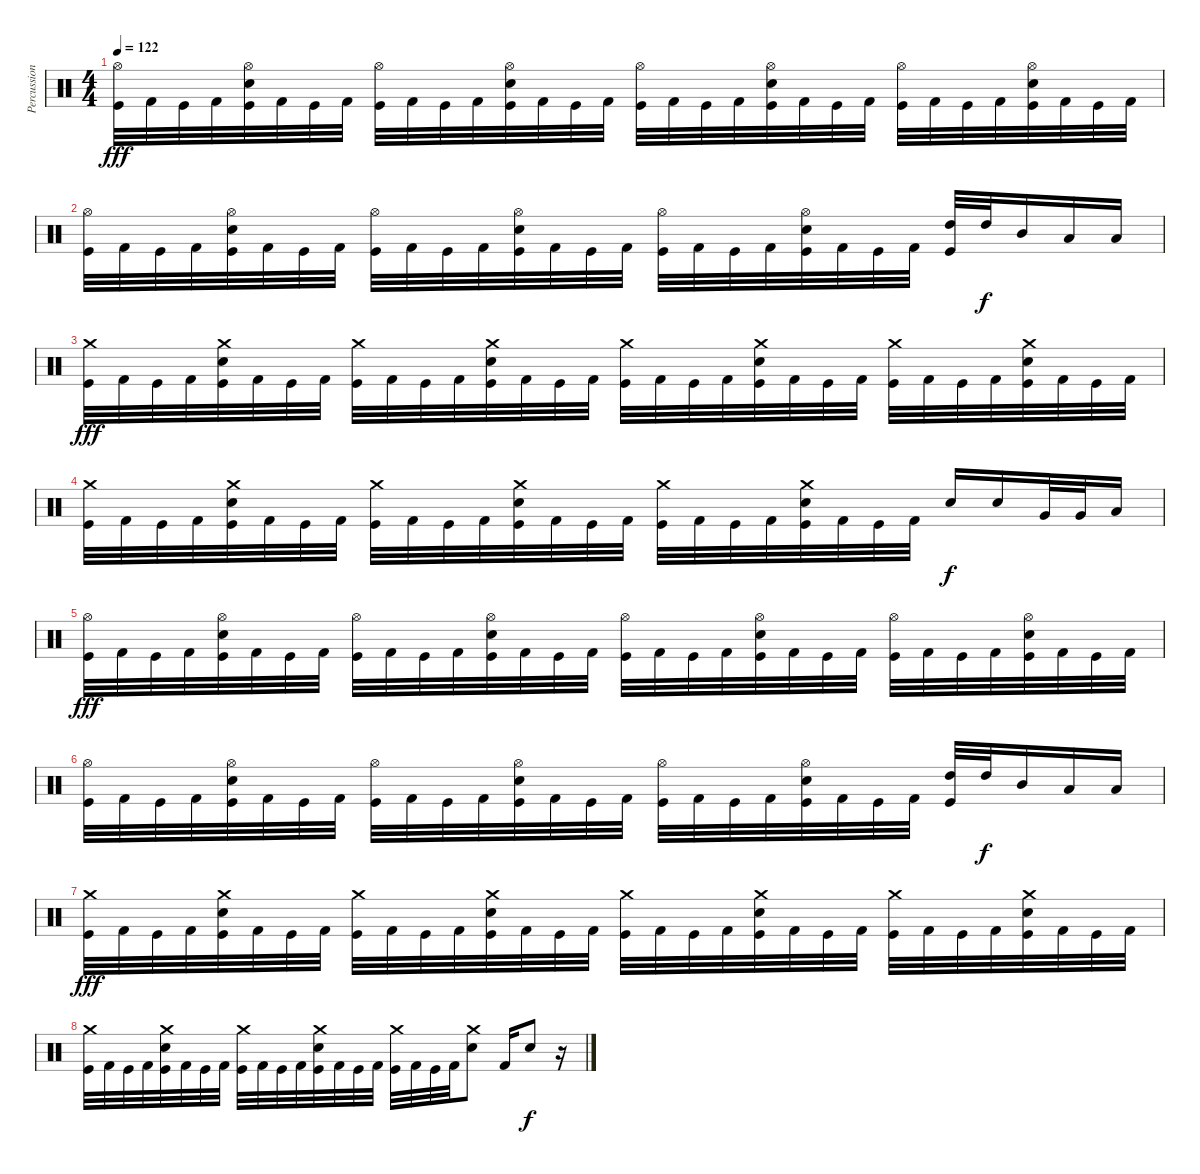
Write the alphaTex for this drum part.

\track ("Percussion" "Percussion") {instrument percussion}
\staff {score}
\articulation defaults
\ts (4 4)
\tempo 122
\clef neutral
\ks c
("Hi-Hat (open)" "Kick (hit)").32{dy fff} "Kick (hit) 2".32 "Kick (hit)".32 "Kick (hit) 2".32 ("Hi-Hat (open)" "Snare (hit) 2" "Kick (hit)").32 "Kick (hit) 2".32 "Kick (hit)".32 "Kick (hit) 2".32 ("Hi-Hat (open)" "Kick (hit)").32 "Kick (hit) 2".32 "Kick (hit)".32 "Kick (hit) 2".32 ("Hi-Hat (open)" "Snare (hit) 2" "Kick (hit)").32 "Kick (hit) 2".32 "Kick (hit)".32 "Kick (hit) 2".32 ("Hi-Hat (open)" "Kick (hit)").32 "Kick (hit) 2".32 "Kick (hit)".32 "Kick (hit) 2".32 ("Hi-Hat (open)" "Snare (hit) 2" "Kick (hit)").32 "Kick (hit) 2".32 "Kick (hit)".32 "Kick (hit) 2".32 ("Hi-Hat (open)" "Kick (hit)").32 "Kick (hit) 2".32 "Kick (hit)".32 "Kick (hit) 2".32 ("Hi-Hat (open)" "Snare (hit) 2" "Kick (hit)").32 "Kick (hit) 2".32 "Kick (hit)".32 "Kick (hit) 2".32 |
("Hi-Hat (open)" "Kick (hit)").32 "Kick (hit) 2".32 "Kick (hit)".32 "Kick (hit) 2".32 ("Hi-Hat (open)" "Snare (hit) 2" "Kick (hit)").32 "Kick (hit) 2".32 "Kick (hit)".32 "Kick (hit) 2".32 ("Hi-Hat (open)" "Kick (hit)").32 "Kick (hit) 2".32 "Kick (hit)".32 "Kick (hit) 2".32 ("Hi-Hat (open)" "Snare (hit) 2" "Kick (hit)").32 "Kick (hit) 2".32 "Kick (hit)".32 "Kick (hit) 2".32 ("Hi-Hat (open)" "Kick (hit)").32 "Kick (hit) 2".32 "Kick (hit)".32 "Kick (hit) 2".32 ("Hi-Hat (open)" "Snare (hit) 2" "Kick (hit)").32 "Kick (hit) 2".32 "Kick (hit)".32 "Kick (hit) 2".32 ("High Tom (hit)" "Kick (hit)").32 "High Tom (hit)".32{dy f} "Mid Tom (hit)".16 "Low Tom (hit)".16 "Low Tom (hit)".16 |
("Crash medium (hit)" "Kick (hit)").32{dy fff} "Kick (hit) 2".32 "Kick (hit)".32 "Kick (hit) 2".32 ("Crash medium (hit)" "Snare (hit) 2" "Kick (hit)").32 "Kick (hit) 2".32 "Kick (hit)".32 "Kick (hit) 2".32 ("Crash medium (hit)" "Kick (hit)").32 "Kick (hit) 2".32 "Kick (hit)".32 "Kick (hit) 2".32 ("Crash medium (hit)" "Snare (hit) 2" "Kick (hit)").32 "Kick (hit) 2".32 "Kick (hit)".32 "Kick (hit) 2".32 ("Crash medium (hit)" "Kick (hit)").32 "Kick (hit) 2".32 "Kick (hit)".32 "Kick (hit) 2".32 ("Crash medium (hit)" "Snare (hit) 2" "Kick (hit)").32 "Kick (hit) 2".32 "Kick (hit)".32 "Kick (hit) 2".32 ("Crash medium (hit)" "Kick (hit)").32 "Kick (hit) 2".32 "Kick (hit)".32 "Kick (hit) 2".32 ("Crash medium (hit)" "Snare (hit) 2" "Kick (hit)").32 "Kick (hit) 2".32 "Kick (hit)".32 "Kick (hit) 2".32 |
("Crash medium (hit)" "Kick (hit)").32 "Kick (hit) 2".32 "Kick (hit)".32 "Kick (hit) 2".32 ("Crash medium (hit)" "Snare (hit) 2" "Kick (hit)").32 "Kick (hit) 2".32 "Kick (hit)".32 "Kick (hit) 2".32 ("Crash medium (hit)" "Kick (hit)").32 "Kick (hit) 2".32 "Kick (hit)".32 "Kick (hit) 2".32 ("Crash medium (hit)" "Snare (hit) 2" "Kick (hit)").32 "Kick (hit) 2".32 "Kick (hit)".32 "Kick (hit) 2".32 ("Crash medium (hit)" "Kick (hit)").32 "Kick (hit) 2".32 "Kick (hit)".32 "Kick (hit) 2".32 ("Crash medium (hit)" "Snare (hit) 2" "Kick (hit)").32 "Kick (hit) 2".32 "Kick (hit)".32 "Kick (hit) 2".32 "Snare (hit) 2".16{dy f} "Snare (hit) 2".16 "Very Low Tom (hit)".32 "Very Low Tom (hit)".32 "Low Floor Tom (hit)".16 |
("Hi-Hat (open)" "Kick (hit)").32{dy fff} "Kick (hit) 2".32 "Kick (hit)".32 "Kick (hit) 2".32 ("Hi-Hat (open)" "Snare (hit) 2" "Kick (hit)").32 "Kick (hit) 2".32 "Kick (hit)".32 "Kick (hit) 2".32 ("Hi-Hat (open)" "Kick (hit)").32 "Kick (hit) 2".32 "Kick (hit)".32 "Kick (hit) 2".32 ("Hi-Hat (open)" "Snare (hit) 2" "Kick (hit)").32 "Kick (hit) 2".32 "Kick (hit)".32 "Kick (hit) 2".32 ("Hi-Hat (open)" "Kick (hit)").32 "Kick (hit) 2".32 "Kick (hit)".32 "Kick (hit) 2".32 ("Hi-Hat (open)" "Snare (hit) 2" "Kick (hit)").32 "Kick (hit) 2".32 "Kick (hit)".32 "Kick (hit) 2".32 ("Hi-Hat (open)" "Kick (hit)").32 "Kick (hit) 2".32 "Kick (hit)".32 "Kick (hit) 2".32 ("Hi-Hat (open)" "Snare (hit) 2" "Kick (hit)").32 "Kick (hit) 2".32 "Kick (hit)".32 "Kick (hit) 2".32 |
("Hi-Hat (open)" "Kick (hit)").32 "Kick (hit) 2".32 "Kick (hit)".32 "Kick (hit) 2".32 ("Hi-Hat (open)" "Snare (hit) 2" "Kick (hit)").32 "Kick (hit) 2".32 "Kick (hit)".32 "Kick (hit) 2".32 ("Hi-Hat (open)" "Kick (hit)").32 "Kick (hit) 2".32 "Kick (hit)".32 "Kick (hit) 2".32 ("Hi-Hat (open)" "Snare (hit) 2" "Kick (hit)").32 "Kick (hit) 2".32 "Kick (hit)".32 "Kick (hit) 2".32 ("Hi-Hat (open)" "Kick (hit)").32 "Kick (hit) 2".32 "Kick (hit)".32 "Kick (hit) 2".32 ("Hi-Hat (open)" "Snare (hit) 2" "Kick (hit)").32 "Kick (hit) 2".32 "Kick (hit)".32 "Kick (hit) 2".32 ("High Tom (hit)" "Kick (hit)").32 "High Tom (hit)".32{dy f} "Mid Tom (hit)".16 "Low Tom (hit)".16 "Low Tom (hit)".16 |
("Crash medium (hit)" "Kick (hit)").32{dy fff} "Kick (hit) 2".32 "Kick (hit)".32 "Kick (hit) 2".32 ("Crash medium (hit)" "Snare (hit) 2" "Kick (hit)").32 "Kick (hit) 2".32 "Kick (hit)".32 "Kick (hit) 2".32 ("Crash medium (hit)" "Kick (hit)").32 "Kick (hit) 2".32 "Kick (hit)".32 "Kick (hit) 2".32 ("Crash medium (hit)" "Snare (hit) 2" "Kick (hit)").32 "Kick (hit) 2".32 "Kick (hit)".32 "Kick (hit) 2".32 ("Crash medium (hit)" "Kick (hit)").32 "Kick (hit) 2".32 "Kick (hit)".32 "Kick (hit) 2".32 ("Crash medium (hit)" "Snare (hit) 2" "Kick (hit)").32 "Kick (hit) 2".32 "Kick (hit)".32 "Kick (hit) 2".32 ("Crash medium (hit)" "Kick (hit)").32 "Kick (hit) 2".32 "Kick (hit)".32 "Kick (hit) 2".32 ("Crash medium (hit)" "Snare (hit) 2" "Kick (hit)").32 "Kick (hit) 2".32 "Kick (hit)".32 "Kick (hit) 2".32 |
("Crash medium (hit)" "Kick (hit)").32 "Kick (hit) 2".32 "Kick (hit)".32 "Kick (hit) 2".32 ("Crash medium (hit)" "Snare (hit) 2" "Kick (hit)").32 "Kick (hit) 2".32 "Kick (hit)".32 "Kick (hit) 2".32 ("Crash medium (hit)" "Kick (hit)").32 "Kick (hit) 2".32 "Kick (hit)".32 "Kick (hit) 2".32 ("Crash medium (hit)" "Snare (hit) 2" "Kick (hit)").32 "Kick (hit) 2".32 "Kick (hit)".32 "Kick (hit) 2".32 ("Crash medium (hit)" "Kick (hit)").32 "Kick (hit) 2".32 "Kick (hit)".32 "Kick (hit) 2".32 ("Crash medium (hit)" "Snare (hit) 2").8 "Kick (hit) 2".16 "Snare (hit) 2".8{dy f} r.16
